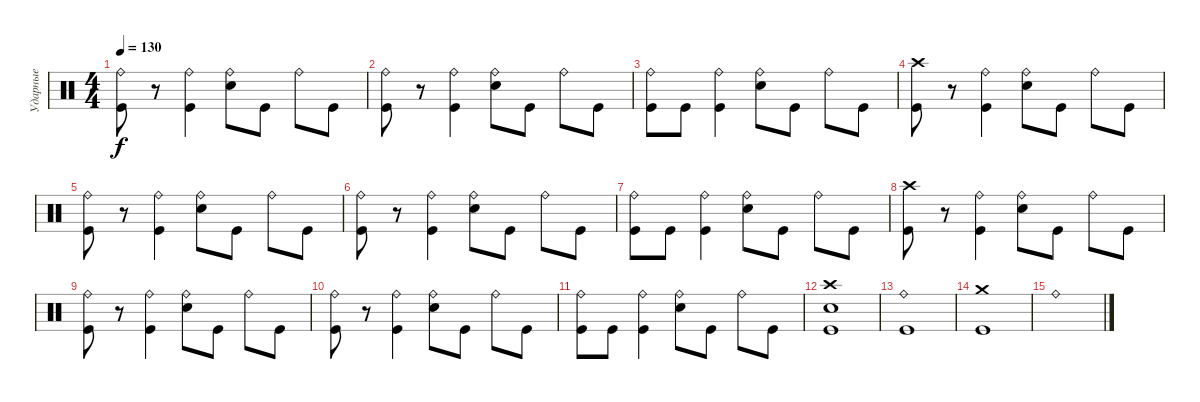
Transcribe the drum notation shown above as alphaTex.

\track ("Ударные" "Ударные") {instrument percussion}
\staff {score}
\articulation defaults
\ts (4 4)
\tempo 130
\clef neutral
\ks c
("Ride (bell)" "Kick (hit)").8{dy f} r.8 ("Ride (bell)" "Kick (hit)").4 ("Ride (bell)" "Electric Snare (hit)").8 "Kick (hit)".8 "Ride (bell)".8 "Kick (hit)".8 |
("Ride (bell)" "Kick (hit)").8 r.8 ("Ride (bell)" "Kick (hit)").4 ("Ride (bell)" "Electric Snare (hit)").8 "Kick (hit)".8 "Ride (bell)".8 "Kick (hit)".8 |
("Ride (bell)" "Kick (hit)").8 "Kick (hit)".8 ("Ride (bell)" "Kick (hit)").4 ("Ride (bell)" "Electric Snare (hit)").8 "Kick (hit)".8 "Ride (bell)".8 "Kick (hit)".8 |
("Crash high (hit)" "Kick (hit)").8 r.8 ("Ride (bell)" "Kick (hit)").4 ("Ride (bell)" "Electric Snare (hit)").8 "Kick (hit)".8 "Ride (bell)".8 "Kick (hit)".8 |
("Ride (bell)" "Kick (hit)").8 r.8 ("Ride (bell)" "Kick (hit)").4 ("Ride (bell)" "Electric Snare (hit)").8 "Kick (hit)".8 "Ride (bell)".8 "Kick (hit)".8 |
("Ride (bell)" "Kick (hit)").8 r.8 ("Ride (bell)" "Kick (hit)").4 ("Ride (bell)" "Electric Snare (hit)").8 "Kick (hit)".8 "Ride (bell)".8 "Kick (hit)".8 |
("Ride (bell)" "Kick (hit)").8 "Kick (hit)".8 ("Ride (bell)" "Kick (hit)").4 ("Ride (bell)" "Electric Snare (hit)").8 "Kick (hit)".8 "Ride (bell)".8 "Kick (hit)".8 |
("Crash high (hit)" "Kick (hit)").8 r.8 ("Ride (bell)" "Kick (hit)").4 ("Ride (bell)" "Electric Snare (hit)").8 "Kick (hit)".8 "Ride (bell)".8 "Kick (hit)".8 |
("Ride (bell)" "Kick (hit)").8 r.8 ("Ride (bell)" "Kick (hit)").4 ("Ride (bell)" "Electric Snare (hit)").8 "Kick (hit)".8 "Ride (bell)".8 "Kick (hit)".8 |
("Ride (bell)" "Kick (hit)").8 r.8 ("Ride (bell)" "Kick (hit)").4 ("Ride (bell)" "Electric Snare (hit)").8 "Kick (hit)".8 "Ride (bell)".8 "Kick (hit)".8 |
("Ride (bell)" "Kick (hit)").8 "Kick (hit)".8 ("Ride (bell)" "Kick (hit)").4 ("Ride (bell)" "Electric Snare (hit)").8 "Kick (hit)".8 "Ride (bell)".8 "Kick (hit)".8 |
("Crash high (hit)" "Electric Snare (hit)" "Kick (hit)").1 |
("Ride (bell)" "Kick (hit)").1 |
("Crash medium (hit)" "Kick (hit)").1 |
"Ride (bell)".1
